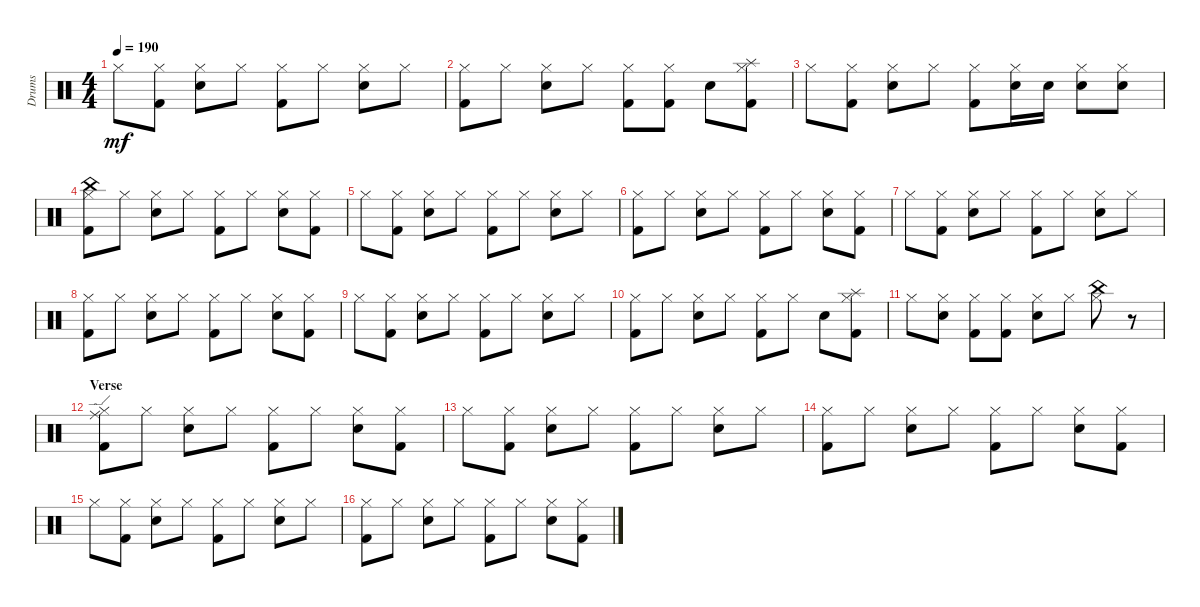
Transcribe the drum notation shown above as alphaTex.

\defaultSystemsLayout 4
\bracketExtendMode groupsimilarinstruments
\otherSystemsTrackNameOrientation horizontal
\track ("Prakarsh" "Drums") {instrument percussion}
\staff {score}
\articulation defaults
\ts (4 4)
\tempo 190
\clef neutral
\ks c "Hi-Hat (closed)".8{dy mf beam Down}
("Hi-Hat (closed)" "Kick (hit) 2").8{beam Down} ("Hi-Hat (closed)" "Snare (hit) 2").8{beam Down} "Hi-Hat (closed)".8{beam Down} ("Hi-Hat (closed)" "Kick (hit) 2").8{beam Down} "Hi-Hat (closed)".8{beam Down} ("Hi-Hat (closed)" "Snare (hit) 2").8{beam Down} "Hi-Hat (closed)".8{beam Down} |
("Kick (hit) 2" "Hi-Hat (closed)").8{beam Down} "Hi-Hat (closed)".8{beam Down} ("Hi-Hat (closed)" "Snare (hit) 2").8{beam Down} "Hi-Hat (closed)".8{beam Down} ("Hi-Hat (closed)" "Kick (hit) 2").8{beam Down} ("Hi-Hat (closed)" "Kick (hit) 2").8{beam Down} "Snare (hit) 2".8{beam Down} ("Hi-Hat (closed)" "Kick (hit) 2" "Splash (hit)").8{beam Down} |
"Hi-Hat (closed)".8{beam Down} ("Hi-Hat (closed)" "Kick (hit) 2").8{beam Down} ("Hi-Hat (closed)" "Snare (hit) 2").8{beam Down} "Hi-Hat (closed)".8{beam Down} ("Hi-Hat (closed)" "Kick (hit) 2").8{beam Down} ("Hi-Hat (closed)" "Snare (hit) 2").16{beam Down} "Snare (hit) 2".16{beam Down} ("Hi-Hat (closed)" "Snare (hit) 2").8{beam Down} ("Hi-Hat (closed)" "Snare (hit) 2").8{beam Down} |
("Kick (hit) 2" "Hi-Hat (closed)" "China (hit)").8{beam Down} "Hi-Hat (closed)".8{beam Down} ("Hi-Hat (closed)" "Snare (hit) 2").8{beam Down} "Hi-Hat (closed)".8{beam Down} ("Hi-Hat (closed)" "Kick (hit) 2").8{beam Down} "Hi-Hat (closed)".8{beam Down} ("Hi-Hat (closed)" "Snare (hit) 2").8{beam Down} ("Hi-Hat (closed)" "Kick (hit) 2").8{beam Down} |
"Hi-Hat (closed)".8{beam Down} ("Hi-Hat (closed)" "Kick (hit) 2").8{beam Down} ("Hi-Hat (closed)" "Snare (hit) 2").8{beam Down} "Hi-Hat (closed)".8{beam Down} ("Hi-Hat (closed)" "Kick (hit) 2").8{beam Down} "Hi-Hat (closed)".8{beam Down} ("Hi-Hat (closed)" "Snare (hit) 2").8{beam Down} "Hi-Hat (closed)".8{beam Down} |
("Kick (hit) 2" "Hi-Hat (closed)").8{beam Down} "Hi-Hat (closed)".8{beam Down} ("Hi-Hat (closed)" "Snare (hit) 2").8{beam Down} "Hi-Hat (closed)".8{beam Down} ("Hi-Hat (closed)" "Kick (hit) 2").8{beam Down} "Hi-Hat (closed)".8{beam Down} ("Hi-Hat (closed)" "Snare (hit) 2").8{beam Down} ("Hi-Hat (closed)" "Kick (hit) 2").8{beam Down} |
"Hi-Hat (closed)".8{beam Down} ("Hi-Hat (closed)" "Kick (hit) 2").8{beam Down} ("Hi-Hat (closed)" "Snare (hit) 2").8{beam Down} "Hi-Hat (closed)".8{beam Down} ("Hi-Hat (closed)" "Kick (hit) 2").8{beam Down} "Hi-Hat (closed)".8{beam Down} ("Hi-Hat (closed)" "Snare (hit) 2").8{beam Down} "Hi-Hat (closed)".8{beam Down} |
("Kick (hit) 2" "Hi-Hat (closed)").8{beam Down} "Hi-Hat (closed)".8{beam Down} ("Hi-Hat (closed)" "Snare (hit) 2").8{beam Down} "Hi-Hat (closed)".8{beam Down} ("Hi-Hat (closed)" "Kick (hit) 2").8{beam Down} "Hi-Hat (closed)".8{beam Down} ("Hi-Hat (closed)" "Snare (hit) 2").8{beam Down} ("Hi-Hat (closed)" "Kick (hit) 2").8{beam Down} |
"Hi-Hat (closed)".8{beam Down} ("Hi-Hat (closed)" "Kick (hit) 2").8{beam Down} ("Hi-Hat (closed)" "Snare (hit) 2").8{beam Down} "Hi-Hat (closed)".8{beam Down} ("Hi-Hat (closed)" "Kick (hit) 2").8{beam Down} "Hi-Hat (closed)".8{beam Down} ("Hi-Hat (closed)" "Snare (hit) 2").8{beam Down} "Hi-Hat (closed)".8{beam Down} |
("Kick (hit) 2" "Hi-Hat (closed)").8{beam Down} "Hi-Hat (closed)".8{beam Down} ("Hi-Hat (closed)" "Snare (hit) 2").8{beam Down} "Hi-Hat (closed)".8{beam Down} ("Hi-Hat (closed)" "Kick (hit) 2").8{beam Down} "Hi-Hat (closed)".8{beam Down} "Snare (hit) 2".8{beam Down} ("Hi-Hat (closed)" "Kick (hit) 2" "Splash (hit)").8{beam Down} |
"Hi-Hat (closed)".8{beam Down} ("Hi-Hat (closed)" "Snare (hit) 2").8{beam Down} ("Hi-Hat (closed)" "Kick (hit) 2").8{beam Down} ("Hi-Hat (closed)" "Kick (hit) 2").8{beam Down} ("Snare (hit) 2" "Hi-Hat (closed)").8{beam Down} "Hi-Hat (closed)".8{beam Down} ("Hi-Hat (closed)" "China (hit)").8{beam Down} r.8{beam Down} |
\section ("" "Verse")
("Kick (hit) 2" "Hi-Hat (closed)" "Ride (edge)").8{beam Down} "Hi-Hat (closed)".8{beam Down} ("Hi-Hat (closed)" "Snare (hit) 2").8{beam Down} "Hi-Hat (closed)".8{beam Down} ("Hi-Hat (closed)" "Kick (hit) 2").8{beam Down} "Hi-Hat (closed)".8{beam Down} ("Hi-Hat (closed)" "Snare (hit) 2").8{beam Down} ("Hi-Hat (closed)" "Kick (hit) 2").8{beam Down} |
"Hi-Hat (closed)".8{beam Down} ("Hi-Hat (closed)" "Kick (hit) 2").8{beam Down} ("Hi-Hat (closed)" "Snare (hit) 2").8{beam Down} "Hi-Hat (closed)".8{beam Down} ("Hi-Hat (closed)" "Kick (hit) 2").8{beam Down} "Hi-Hat (closed)".8{beam Down} ("Hi-Hat (closed)" "Snare (hit) 2").8{beam Down} "Hi-Hat (closed)".8{beam Down} |
("Kick (hit) 2" "Hi-Hat (closed)").8{beam Down} "Hi-Hat (closed)".8{beam Down} ("Hi-Hat (closed)" "Snare (hit) 2").8{beam Down} "Hi-Hat (closed)".8{beam Down} ("Hi-Hat (closed)" "Kick (hit) 2").8{beam Down} "Hi-Hat (closed)".8{beam Down} ("Hi-Hat (closed)" "Snare (hit) 2").8{beam Down} ("Hi-Hat (closed)" "Kick (hit) 2").8{beam Down} |
"Hi-Hat (closed)".8{beam Down} ("Hi-Hat (closed)" "Kick (hit) 2").8{beam Down} ("Hi-Hat (closed)" "Snare (hit) 2").8{beam Down} "Hi-Hat (closed)".8{beam Down} ("Hi-Hat (closed)" "Kick (hit) 2").8{beam Down} "Hi-Hat (closed)".8{beam Down} ("Hi-Hat (closed)" "Snare (hit) 2").8{beam Down} "Hi-Hat (closed)".8{beam Down} |
("Kick (hit) 2" "Hi-Hat (closed)").8{beam Down} "Hi-Hat (closed)".8{beam Down} ("Hi-Hat (closed)" "Snare (hit) 2").8{beam Down} "Hi-Hat (closed)".8{beam Down} ("Hi-Hat (closed)" "Kick (hit) 2").8{beam Down} "Hi-Hat (closed)".8{beam Down} ("Hi-Hat (closed)" "Snare (hit) 2").8{beam Down} ("Hi-Hat (closed)" "Kick (hit) 2").8{beam Down}
